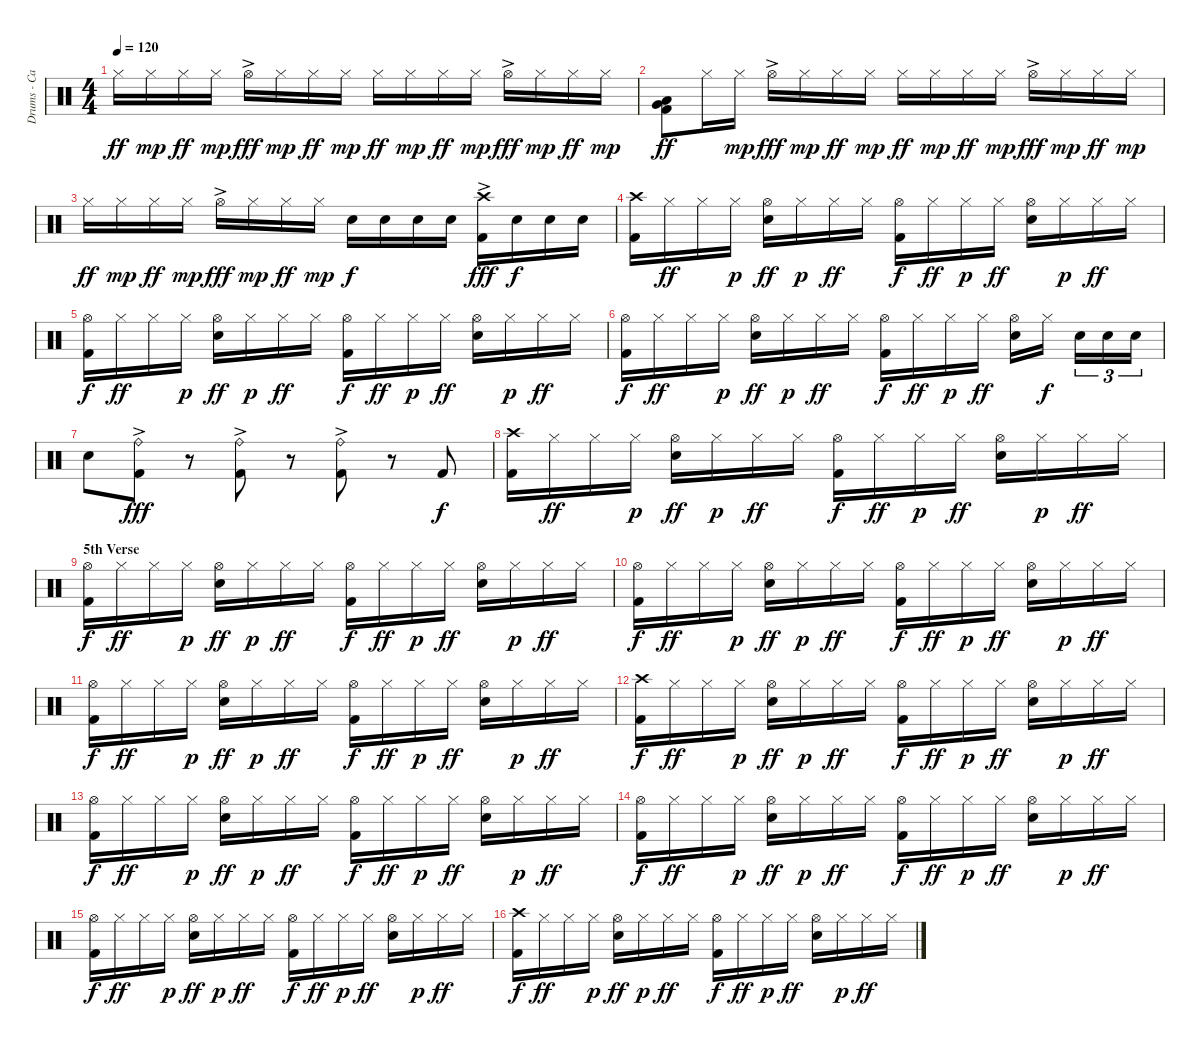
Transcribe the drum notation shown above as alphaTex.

\track ("Drums - Carl Palmer" "Drums - Ca") {instrument percussion}
\staff {score}
\articulation defaults
\ts (4 4)
\tempo 120
\clef neutral
\ks c "Hi-Hat (closed)".16{dy ff} "Hi-Hat (closed)".16{dy mp} "Hi-Hat (closed)".16{dy ff} "Hi-Hat (closed)".16{dy mp} "Hi-Hat (open)"{ac}.16{dy fff} "Hi-Hat (closed)".16{dy mp} "Hi-Hat (closed)".16{dy ff} "Hi-Hat (closed)".16{dy mp} "Hi-Hat (closed)".16{dy ff} "Hi-Hat (closed)".16{dy mp} "Hi-Hat (closed)".16{dy ff} "Hi-Hat (closed)".16{dy mp} "Hi-Hat (open)"{ac}.16{dy fff} "Hi-Hat (closed)".16{dy mp} "Hi-Hat (closed)".16{dy ff} "Hi-Hat (closed)".16{dy mp}
|
("Low Floor Tom (hit)" "Very Low Tom (hit)" "Kick (hit) 2").8{dy ff} "Hi-Hat (closed)".16 "Hi-Hat (closed)".16{dy mp} "Hi-Hat (open)"{ac}.16{dy fff} "Hi-Hat (closed)".16{dy mp} "Hi-Hat (closed)".16{dy ff} "Hi-Hat (closed)".16{dy mp} "Hi-Hat (closed)".16{dy ff} "Hi-Hat (closed)".16{dy mp} "Hi-Hat (closed)".16{dy ff} "Hi-Hat (closed)".16{dy mp} "Hi-Hat (open)"{ac}.16{dy fff} "Hi-Hat (closed)".16{dy mp} "Hi-Hat (closed)".16{dy ff} "Hi-Hat (closed)".16{dy mp} |
"Hi-Hat (closed)".16{dy ff} "Hi-Hat (closed)".16{dy mp} "Hi-Hat (closed)".16{dy ff} "Hi-Hat (closed)".16{dy mp} "Hi-Hat (open)"{ac}.16{dy fff} "Hi-Hat (closed)".16{dy mp} "Hi-Hat (closed)".16{dy ff} "Hi-Hat (closed)".16{dy mp} "Snare (hit) 2".16{dy f} "Snare (hit) 2".16 "Snare (hit) 2".16 "Snare (hit) 2".16 ("Crash high (hit)"{ac} "Kick (hit) 2").16{dy fff} "Snare (hit) 2".16{dy f} "Snare (hit) 2".16 "Snare (hit) 2".16 |
("Crash high (hit)" "Kick (hit) 2").16 "Hi-Hat (closed)".16{dy ff} "Hi-Hat (closed)".16 "Hi-Hat (closed)".16{dy p} ("Hi-Hat (open)" "Snare (hit) 2").16{dy ff} "Hi-Hat (closed)".16{dy p} "Hi-Hat (closed)".16{dy ff} "Hi-Hat (closed)".16 ("Hi-Hat (open)" "Kick (hit) 2").16{dy f} "Hi-Hat (closed)".16{dy ff} "Hi-Hat (closed)".16{dy p} "Hi-Hat (closed)".16{dy ff} ("Hi-Hat (open)" "Snare (hit) 2").16 "Hi-Hat (closed)".16{dy p} "Hi-Hat (closed)".16{dy ff} "Hi-Hat (closed)".16 |
("Hi-Hat (open)" "Kick (hit) 2").16{dy f} "Hi-Hat (closed)".16{dy ff} "Hi-Hat (closed)".16 "Hi-Hat (closed)".16{dy p} ("Hi-Hat (open)" "Snare (hit) 2").16{dy ff} "Hi-Hat (closed)".16{dy p} "Hi-Hat (closed)".16{dy ff} "Hi-Hat (closed)".16 ("Hi-Hat (open)" "Kick (hit) 2").16{dy f} "Hi-Hat (closed)".16{dy ff} "Hi-Hat (closed)".16{dy p} "Hi-Hat (closed)".16{dy ff} ("Hi-Hat (open)" "Snare (hit) 2").16 "Hi-Hat (closed)".16{dy p} "Hi-Hat (closed)".16{dy ff} "Hi-Hat (closed)".16 |
("Hi-Hat (open)" "Kick (hit) 2").16{dy f} "Hi-Hat (closed)".16{dy ff} "Hi-Hat (closed)".16 "Hi-Hat (closed)".16{dy p} ("Hi-Hat (open)" "Snare (hit) 2").16{dy ff} "Hi-Hat (closed)".16{dy p} "Hi-Hat (closed)".16{dy ff} "Hi-Hat (closed)".16 ("Hi-Hat (open)" "Kick (hit) 2").16{dy f} "Hi-Hat (closed)".16{dy ff} "Hi-Hat (closed)".16{dy p} "Hi-Hat (closed)".16{dy ff} ("Hi-Hat (open)" "Snare (hit) 2").16 "Hi-Hat (closed)".16{dy f} "Snare (hit) 2".16{tu (3 2)} "Snare (hit) 2".16{tu (3 2)} "Snare (hit) 2".16{tu (3 2)} |
"Snare (hit) 2".8 ("Ride (bell)"{ac} "Kick (hit) 2").8{dy fff} r.8 ("Ride (bell)"{ac} "Kick (hit) 2").8 r.8 ("Ride (bell)"{ac} "Kick (hit) 2").8 r.8 "Kick (hit) 2".8{dy f} |
("Crash high (hit)" "Kick (hit) 2").16 "Hi-Hat (closed)".16{dy ff} "Hi-Hat (closed)".16 "Hi-Hat (closed)".16{dy p} ("Hi-Hat (open)" "Snare (hit) 2").16{dy ff} "Hi-Hat (closed)".16{dy p} "Hi-Hat (closed)".16{dy ff} "Hi-Hat (closed)".16 ("Hi-Hat (open)" "Kick (hit) 2").16{dy f} "Hi-Hat (closed)".16{dy ff} "Hi-Hat (closed)".16{dy p} "Hi-Hat (closed)".16{dy ff} ("Hi-Hat (open)" "Snare (hit) 2").16 "Hi-Hat (closed)".16{dy p} "Hi-Hat (closed)".16{dy ff} "Hi-Hat (closed)".16 |
\section ("" "5th Verse")
("Hi-Hat (open)" "Kick (hit) 2").16{dy f} "Hi-Hat (closed)".16{dy ff} "Hi-Hat (closed)".16 "Hi-Hat (closed)".16{dy p} ("Hi-Hat (open)" "Snare (hit) 2").16{dy ff} "Hi-Hat (closed)".16{dy p} "Hi-Hat (closed)".16{dy ff} "Hi-Hat (closed)".16 ("Hi-Hat (open)" "Kick (hit) 2").16{dy f} "Hi-Hat (closed)".16{dy ff} "Hi-Hat (closed)".16{dy p} "Hi-Hat (closed)".16{dy ff} ("Hi-Hat (open)" "Snare (hit) 2").16 "Hi-Hat (closed)".16{dy p} "Hi-Hat (closed)".16{dy ff} "Hi-Hat (closed)".16 |
("Hi-Hat (open)" "Kick (hit) 2").16{dy f} "Hi-Hat (closed)".16{dy ff} "Hi-Hat (closed)".16 "Hi-Hat (closed)".16{dy p} ("Hi-Hat (open)" "Snare (hit) 2").16{dy ff} "Hi-Hat (closed)".16{dy p} "Hi-Hat (closed)".16{dy ff} "Hi-Hat (closed)".16 ("Hi-Hat (open)" "Kick (hit) 2").16{dy f} "Hi-Hat (closed)".16{dy ff} "Hi-Hat (closed)".16{dy p} "Hi-Hat (closed)".16{dy ff} ("Hi-Hat (open)" "Snare (hit) 2").16 "Hi-Hat (closed)".16{dy p} "Hi-Hat (closed)".16{dy ff} "Hi-Hat (closed)".16 |
("Hi-Hat (open)" "Kick (hit) 2").16{dy f} "Hi-Hat (closed)".16{dy ff} "Hi-Hat (closed)".16 "Hi-Hat (closed)".16{dy p} ("Hi-Hat (open)" "Snare (hit) 2").16{dy ff} "Hi-Hat (closed)".16{dy p} "Hi-Hat (closed)".16{dy ff} "Hi-Hat (closed)".16 ("Hi-Hat (open)" "Kick (hit) 2").16{dy f} "Hi-Hat (closed)".16{dy ff} "Hi-Hat (closed)".16{dy p} "Hi-Hat (closed)".16{dy ff} ("Hi-Hat (open)" "Snare (hit) 2").16 "Hi-Hat (closed)".16{dy p} "Hi-Hat (closed)".16{dy ff} "Hi-Hat (closed)".16 |
("Crash high (hit)" "Kick (hit) 2").16{dy f} "Hi-Hat (closed)".16{dy ff} "Hi-Hat (closed)".16 "Hi-Hat (closed)".16{dy p} ("Hi-Hat (open)" "Snare (hit) 2").16{dy ff} "Hi-Hat (closed)".16{dy p} "Hi-Hat (closed)".16{dy ff} "Hi-Hat (closed)".16 ("Hi-Hat (open)" "Kick (hit) 2").16{dy f} "Hi-Hat (closed)".16{dy ff} "Hi-Hat (closed)".16{dy p} "Hi-Hat (closed)".16{dy ff} ("Hi-Hat (open)" "Snare (hit) 2").16 "Hi-Hat (closed)".16{dy p} "Hi-Hat (closed)".16{dy ff} "Hi-Hat (closed)".16 |
("Hi-Hat (open)" "Kick (hit) 2").16{dy f} "Hi-Hat (closed)".16{dy ff} "Hi-Hat (closed)".16 "Hi-Hat (closed)".16{dy p} ("Hi-Hat (open)" "Snare (hit) 2").16{dy ff} "Hi-Hat (closed)".16{dy p} "Hi-Hat (closed)".16{dy ff} "Hi-Hat (closed)".16 ("Hi-Hat (open)" "Kick (hit) 2").16{dy f} "Hi-Hat (closed)".16{dy ff} "Hi-Hat (closed)".16{dy p} "Hi-Hat (closed)".16{dy ff} ("Hi-Hat (open)" "Snare (hit) 2").16 "Hi-Hat (closed)".16{dy p} "Hi-Hat (closed)".16{dy ff} "Hi-Hat (closed)".16 |
("Hi-Hat (open)" "Kick (hit) 2").16{dy f} "Hi-Hat (closed)".16{dy ff} "Hi-Hat (closed)".16 "Hi-Hat (closed)".16{dy p} ("Hi-Hat (open)" "Snare (hit) 2").16{dy ff} "Hi-Hat (closed)".16{dy p} "Hi-Hat (closed)".16{dy ff} "Hi-Hat (closed)".16 ("Hi-Hat (open)" "Kick (hit) 2").16{dy f} "Hi-Hat (closed)".16{dy ff} "Hi-Hat (closed)".16{dy p} "Hi-Hat (closed)".16{dy ff} ("Hi-Hat (open)" "Snare (hit) 2").16 "Hi-Hat (closed)".16{dy p} "Hi-Hat (closed)".16{dy ff} "Hi-Hat (closed)".16 |
("Hi-Hat (open)" "Kick (hit) 2").16{dy f} "Hi-Hat (closed)".16{dy ff} "Hi-Hat (closed)".16 "Hi-Hat (closed)".16{dy p} ("Hi-Hat (open)" "Snare (hit) 2").16{dy ff} "Hi-Hat (closed)".16{dy p} "Hi-Hat (closed)".16{dy ff} "Hi-Hat (closed)".16 ("Hi-Hat (open)" "Kick (hit) 2").16{dy f} "Hi-Hat (closed)".16{dy ff} "Hi-Hat (closed)".16{dy p} "Hi-Hat (closed)".16{dy ff} ("Hi-Hat (open)" "Snare (hit) 2").16 "Hi-Hat (closed)".16{dy p} "Hi-Hat (closed)".16{dy ff} "Hi-Hat (closed)".16 |
("Crash high (hit)" "Kick (hit) 2").16{dy f} "Hi-Hat (closed)".16{dy ff} "Hi-Hat (closed)".16 "Hi-Hat (closed)".16{dy p} ("Hi-Hat (open)" "Snare (hit) 2").16{dy ff} "Hi-Hat (closed)".16{dy p} "Hi-Hat (closed)".16{dy ff} "Hi-Hat (closed)".16 ("Hi-Hat (open)" "Kick (hit) 2").16{dy f} "Hi-Hat (closed)".16{dy ff} "Hi-Hat (closed)".16{dy p} "Hi-Hat (closed)".16{dy ff} ("Hi-Hat (open)" "Snare (hit) 2").16 "Hi-Hat (closed)".16{dy p} "Hi-Hat (closed)".16{dy ff} "Hi-Hat (closed)".16
